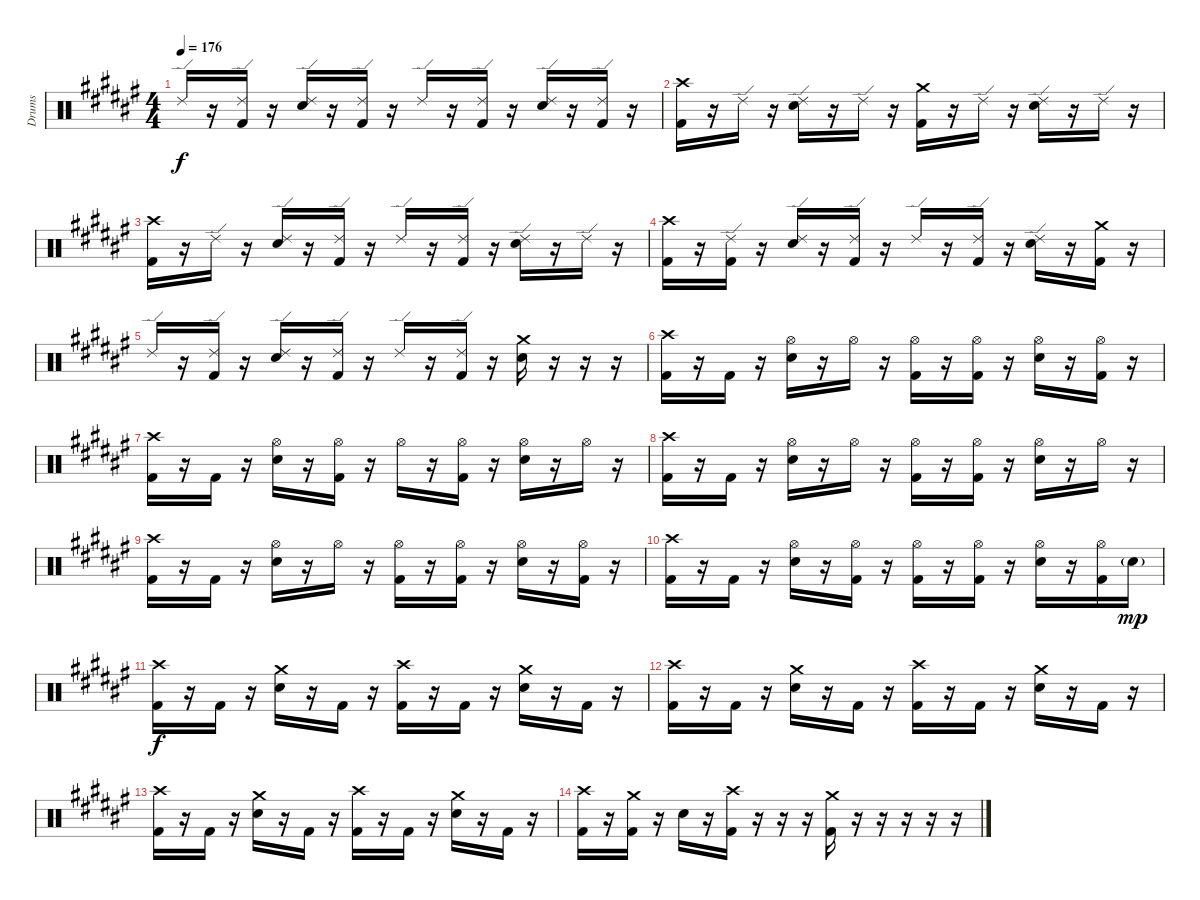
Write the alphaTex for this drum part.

\track ("Drums" "Drums") {instrument percussion}
\staff {score}
\articulation defaults
\ts (4 4)
\tempo 176
\clef neutral
\ks f# "Ride (edge) 2".16{dy f}
r.16 ("Ride (edge) 2" "Kick (hit) 2").16 r.16 ("Ride (edge) 2" "Electric Snare (hit)").16 r.16 ("Ride (edge) 2" "Kick (hit) 2").16 r.16 "Ride (edge) 2".16 r.16 ("Ride (edge) 2" "Kick (hit) 2").16 r.16 ("Ride (edge) 2" "Electric Snare (hit)").16 r.16 ("Ride (edge) 2" "Kick (hit) 2").16 r.16 |
("Crash high (hit)" "Kick (hit) 2").16 r.16 "Ride (edge) 2".16 r.16 ("Ride (edge) 2" "Electric Snare (hit)").16 r.16 "Ride (edge) 2".16 r.16 ("Crash medium (hit)" "Kick (hit) 2").16 r.16 "Ride (edge) 2".16 r.16 ("Ride (edge) 2" "Electric Snare (hit)").16 r.16 "Ride (edge) 2".16 r.16 |
("Crash high (hit)" "Kick (hit) 2").16 r.16 "Ride (edge) 2".16 r.16 ("Ride (edge) 2" "Electric Snare (hit)").16 r.16 ("Ride (edge) 2" "Kick (hit) 2").16 r.16 "Ride (edge) 2".16 r.16 ("Ride (edge) 2" "Kick (hit) 2").16 r.16 ("Ride (edge) 2" "Electric Snare (hit)").16 r.16 "Ride (edge) 2".16 r.16 |
("Crash high (hit)" "Kick (hit) 2").16 r.16 ("Ride (edge) 2" "Kick (hit) 2").16 r.16 ("Ride (edge) 2" "Electric Snare (hit)").16 r.16 ("Ride (edge) 2" "Kick (hit) 2").16 r.16 "Ride (edge) 2".16 r.16 ("Ride (edge) 2" "Kick (hit) 2").16 r.16 ("Ride (edge) 2" "Electric Snare (hit)").16 r.16 ("Crash medium (hit)" "Kick (hit) 2").16 r.16 |
"Ride (edge) 2".16 r.16 ("Ride (edge) 2" "Kick (hit) 2").16 r.16 ("Ride (edge) 2" "Electric Snare (hit)").16 r.16 ("Ride (edge) 2" "Kick (hit) 2").16 r.16 "Ride (edge) 2".16 r.16 ("Ride (edge) 2" "Kick (hit) 2").16 r.16 ("Crash medium (hit)" "Electric Snare (hit)").16 r.16 r.16 r.16 |
("Crash high (hit)" "Kick (hit) 2").16 r.16 "Kick (hit) 2".16 r.16 ("Hi-Hat (open)" "Electric Snare (hit)").16 r.16 "Hi-Hat (open)".16 r.16 ("Hi-Hat (open)" "Kick (hit) 2").16 r.16 ("Hi-Hat (open)" "Kick (hit) 2").16 r.16 ("Hi-Hat (open)" "Electric Snare (hit)").16 r.16 ("Hi-Hat (open)" "Kick (hit) 2").16 r.16 |
("Crash high (hit)" "Kick (hit) 2").16 r.16 "Kick (hit) 2".16 r.16 ("Hi-Hat (open)" "Electric Snare (hit)").16 r.16 ("Hi-Hat (open)" "Kick (hit) 2").16 r.16 "Hi-Hat (open)".16 r.16 ("Hi-Hat (open)" "Kick (hit) 2").16 r.16 ("Hi-Hat (open)" "Electric Snare (hit)").16 r.16 "Hi-Hat (open)".16 r.16 |
("Crash high (hit)" "Kick (hit) 2").16 r.16 "Kick (hit) 2".16 r.16 ("Hi-Hat (open)" "Electric Snare (hit)").16 r.16 "Hi-Hat (open)".16 r.16 ("Hi-Hat (open)" "Kick (hit) 2").16 r.16 ("Hi-Hat (open)" "Kick (hit) 2").16 r.16 ("Hi-Hat (open)" "Electric Snare (hit)").16 r.16 "Hi-Hat (open)".16 r.16 |
("Crash high (hit)" "Kick (hit) 2").16 r.16 "Kick (hit) 2".16 r.16 ("Hi-Hat (open)" "Electric Snare (hit)").16 r.16 "Hi-Hat (open)".16 r.16 ("Hi-Hat (open)" "Kick (hit) 2").16 r.16 ("Hi-Hat (open)" "Kick (hit) 2").16 r.16 ("Hi-Hat (open)" "Electric Snare (hit)").16 r.16 ("Hi-Hat (open)" "Kick (hit) 2").16 r.16 |
("Crash high (hit)" "Kick (hit) 2").16 r.16 "Kick (hit) 2".16 r.16 ("Hi-Hat (open)" "Electric Snare (hit)").16 r.16 ("Hi-Hat (open)" "Kick (hit) 2").16 r.16 ("Hi-Hat (open)" "Kick (hit) 2").16 r.16 ("Hi-Hat (open)" "Kick (hit) 2").16 r.16 ("Hi-Hat (open)" "Electric Snare (hit)").16 r.16 ("Hi-Hat (open)" "Kick (hit) 2").16 "Electric Snare (hit)"{g}.16{dy mp} |
("Crash high (hit)" "Kick (hit) 2").16{dy f} r.16 "Kick (hit) 2".16 r.16 ("Crash medium (hit)" "Electric Snare (hit)").16 r.16 "Kick (hit) 2".16 r.16 ("Crash high (hit)" "Kick (hit) 2").16 r.16 "Kick (hit) 2".16 r.16 ("Crash medium (hit)" "Electric Snare (hit)").16 r.16 "Kick (hit) 2".16 r.16 |
("Crash high (hit)" "Kick (hit) 2").16 r.16 "Kick (hit) 2".16 r.16 ("Crash medium (hit)" "Electric Snare (hit)").16 r.16 "Kick (hit) 2".16 r.16 ("Crash high (hit)" "Kick (hit) 2").16 r.16 "Kick (hit) 2".16 r.16 ("Crash medium (hit)" "Electric Snare (hit)").16 r.16 "Kick (hit) 2".16 r.16 |
("Crash high (hit)" "Kick (hit) 2").16 r.16 "Kick (hit) 2".16 r.16 ("Crash medium (hit)" "Electric Snare (hit)").16 r.16 "Kick (hit) 2".16 r.16 ("Crash high (hit)" "Kick (hit) 2").16 r.16 "Kick (hit) 2".16 r.16 ("Crash medium (hit)" "Electric Snare (hit)").16 r.16 "Kick (hit) 2".16 r.16 |
("Crash high (hit)" "Kick (hit) 2").16 r.16 ("Crash medium (hit)" "Kick (hit) 2").16 r.16 "Electric Snare (hit)".16 r.16 ("Crash high (hit)" "Kick (hit) 2").16 r.16 r.16 r.16 ("Crash medium (hit)" "Kick (hit) 2").16 r.16 r.16 r.16 r.16 r.16
